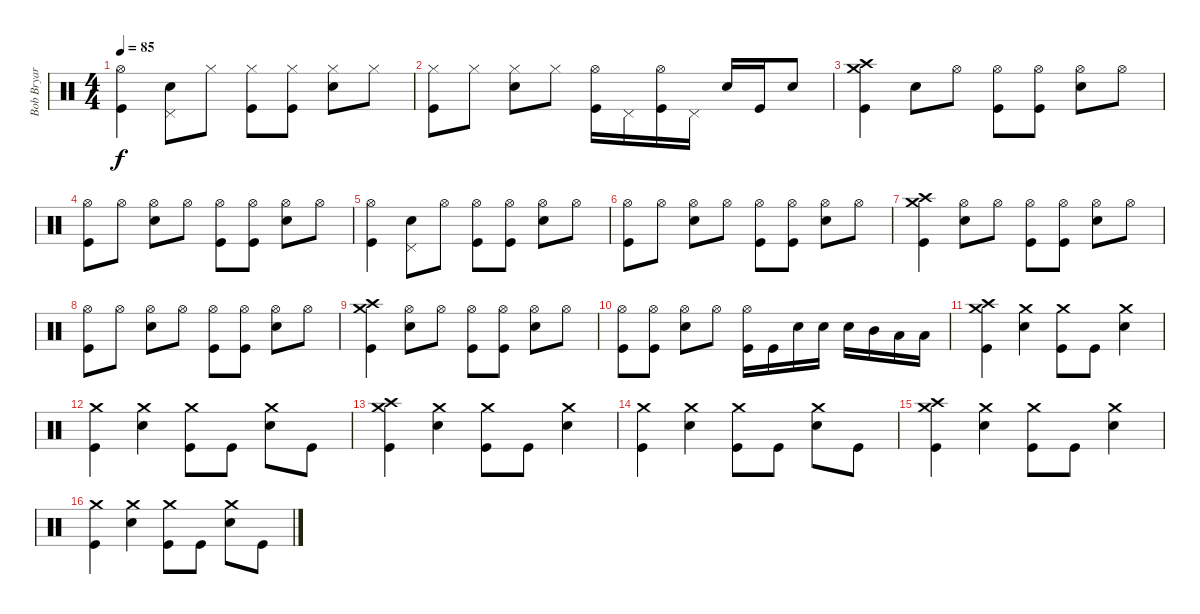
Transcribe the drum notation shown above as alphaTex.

\track ("Bob Bryar (Drums)" "Bob Bryar ") {instrument percussion}
\staff {score}
\articulation defaults
\ts (4 4)
\tempo 85
\clef neutral
\ks c
("Hi-Hat (open)" "Kick (hit)").4{dy f} ("Pedal Hi-Hat (hit)" "Electric Snare (hit)").8 "Hi-Hat (closed)".8 ("Hi-Hat (closed)" "Kick (hit)").8 ("Hi-Hat (closed)" "Kick (hit)").8 ("Hi-Hat (closed)" "Electric Snare (hit)").8 "Hi-Hat (closed)".8 |
("Hi-Hat (closed)" "Kick (hit)").8 "Hi-Hat (closed)".8 ("Hi-Hat (closed)" "Electric Snare (hit)").8 "Hi-Hat (closed)".8 ("Hi-Hat (open)" "Kick (hit)").16 "Pedal Hi-Hat (hit)".16 ("Hi-Hat (open)" "Kick (hit)").16 "Pedal Hi-Hat (hit)".16 "Electric Snare (hit)".16 "Kick (hit)".16 "Electric Snare (hit)".8 |
("Crash high (hit)" "Crash medium (hit)" "Kick (hit)").4 "Electric Snare (hit)".8 "Hi-Hat (open)".8 ("Hi-Hat (open)" "Kick (hit)").8 ("Hi-Hat (open)" "Kick (hit)").8 ("Hi-Hat (open)" "Electric Snare (hit)").8 "Hi-Hat (open)".8 |
("Hi-Hat (open)" "Kick (hit)").8 "Hi-Hat (open)".8 ("Hi-Hat (open)" "Electric Snare (hit)").8 "Hi-Hat (open)".8 ("Hi-Hat (open)" "Kick (hit)").8 ("Hi-Hat (open)" "Kick (hit)").8 ("Hi-Hat (open)" "Electric Snare (hit)").8 "Hi-Hat (open)".8 |
("Hi-Hat (open)" "Kick (hit)").4 ("Pedal Hi-Hat (hit)" "Electric Snare (hit)").8 "Hi-Hat (open)".8 ("Hi-Hat (open)" "Kick (hit)").8 ("Hi-Hat (open)" "Kick (hit)").8 ("Hi-Hat (open)" "Electric Snare (hit)").8 "Hi-Hat (open)".8 |
("Hi-Hat (open)" "Kick (hit)").8 "Hi-Hat (open)".8 ("Hi-Hat (open)" "Electric Snare (hit)").8 "Hi-Hat (open)".8 ("Hi-Hat (open)" "Kick (hit)").8 ("Hi-Hat (open)" "Kick (hit)").8 ("Hi-Hat (open)" "Electric Snare (hit)").8 "Hi-Hat (open)".8 |
("Crash high (hit)" "Crash medium (hit)" "Kick (hit)").4 ("Hi-Hat (open)" "Electric Snare (hit)").8 "Hi-Hat (open)".8 ("Hi-Hat (open)" "Kick (hit)").8 ("Hi-Hat (open)" "Kick (hit)").8 ("Hi-Hat (open)" "Electric Snare (hit)").8 "Hi-Hat (open)".8 |
("Hi-Hat (open)" "Kick (hit)").8 "Hi-Hat (open)".8 ("Hi-Hat (open)" "Electric Snare (hit)").8 "Hi-Hat (open)".8 ("Hi-Hat (open)" "Kick (hit)").8 ("Hi-Hat (open)" "Kick (hit)").8 ("Hi-Hat (open)" "Electric Snare (hit)").8 "Hi-Hat (open)".8 |
("Crash high (hit)" "Crash medium (hit)" "Kick (hit)").4 ("Hi-Hat (open)" "Electric Snare (hit)").8 "Hi-Hat (open)".8 ("Hi-Hat (open)" "Kick (hit)").8 ("Hi-Hat (open)" "Kick (hit)").8 ("Hi-Hat (open)" "Electric Snare (hit)").8 "Hi-Hat (open)".8 |
("Hi-Hat (open)" "Kick (hit)").8 ("Hi-Hat (open)" "Kick (hit)").8 ("Hi-Hat (open)" "Electric Snare (hit)").8 "Hi-Hat (open)".8 ("Hi-Hat (open)" "Kick (hit)").16 "Kick (hit)".16 "Electric Snare (hit)".16 "Electric Snare (hit)".16 "Electric Snare (hit)".16 "Mid Tom (hit)".16 "Low Floor Tom (hit)".16 "Low Floor Tom (hit)".16 |
("Crash high (hit)" "Crash medium (hit)" "Kick (hit)").4 ("Crash medium (hit)" "Electric Snare (hit)").4 ("Crash medium (hit)" "Kick (hit)").8 "Kick (hit)".8 ("Crash medium (hit)" "Electric Snare (hit)").4 |
("Crash medium (hit)" "Kick (hit)").4 ("Crash medium (hit)" "Electric Snare (hit)").4 ("Crash medium (hit)" "Kick (hit)").8 "Kick (hit)".8 ("Crash medium (hit)" "Electric Snare (hit)").8 "Kick (hit)".8 |
("Crash high (hit)" "Crash medium (hit)" "Kick (hit)").4 ("Crash medium (hit)" "Electric Snare (hit)").4 ("Crash medium (hit)" "Kick (hit)").8 "Kick (hit)".8 ("Crash medium (hit)" "Electric Snare (hit)").4 |
("Crash medium (hit)" "Kick (hit)").4 ("Crash medium (hit)" "Electric Snare (hit)").4 ("Crash medium (hit)" "Kick (hit)").8 "Kick (hit)".8 ("Crash medium (hit)" "Electric Snare (hit)").8 "Kick (hit)".8 |
("Crash high (hit)" "Crash medium (hit)" "Kick (hit)").4 ("Crash medium (hit)" "Electric Snare (hit)").4 ("Crash medium (hit)" "Kick (hit)").8 "Kick (hit)".8 ("Crash medium (hit)" "Electric Snare (hit)").4 |
("Crash medium (hit)" "Kick (hit)").4 ("Crash medium (hit)" "Electric Snare (hit)").4 ("Crash medium (hit)" "Kick (hit)").8 "Kick (hit)".8 ("Crash medium (hit)" "Electric Snare (hit)").8 "Kick (hit)".8
